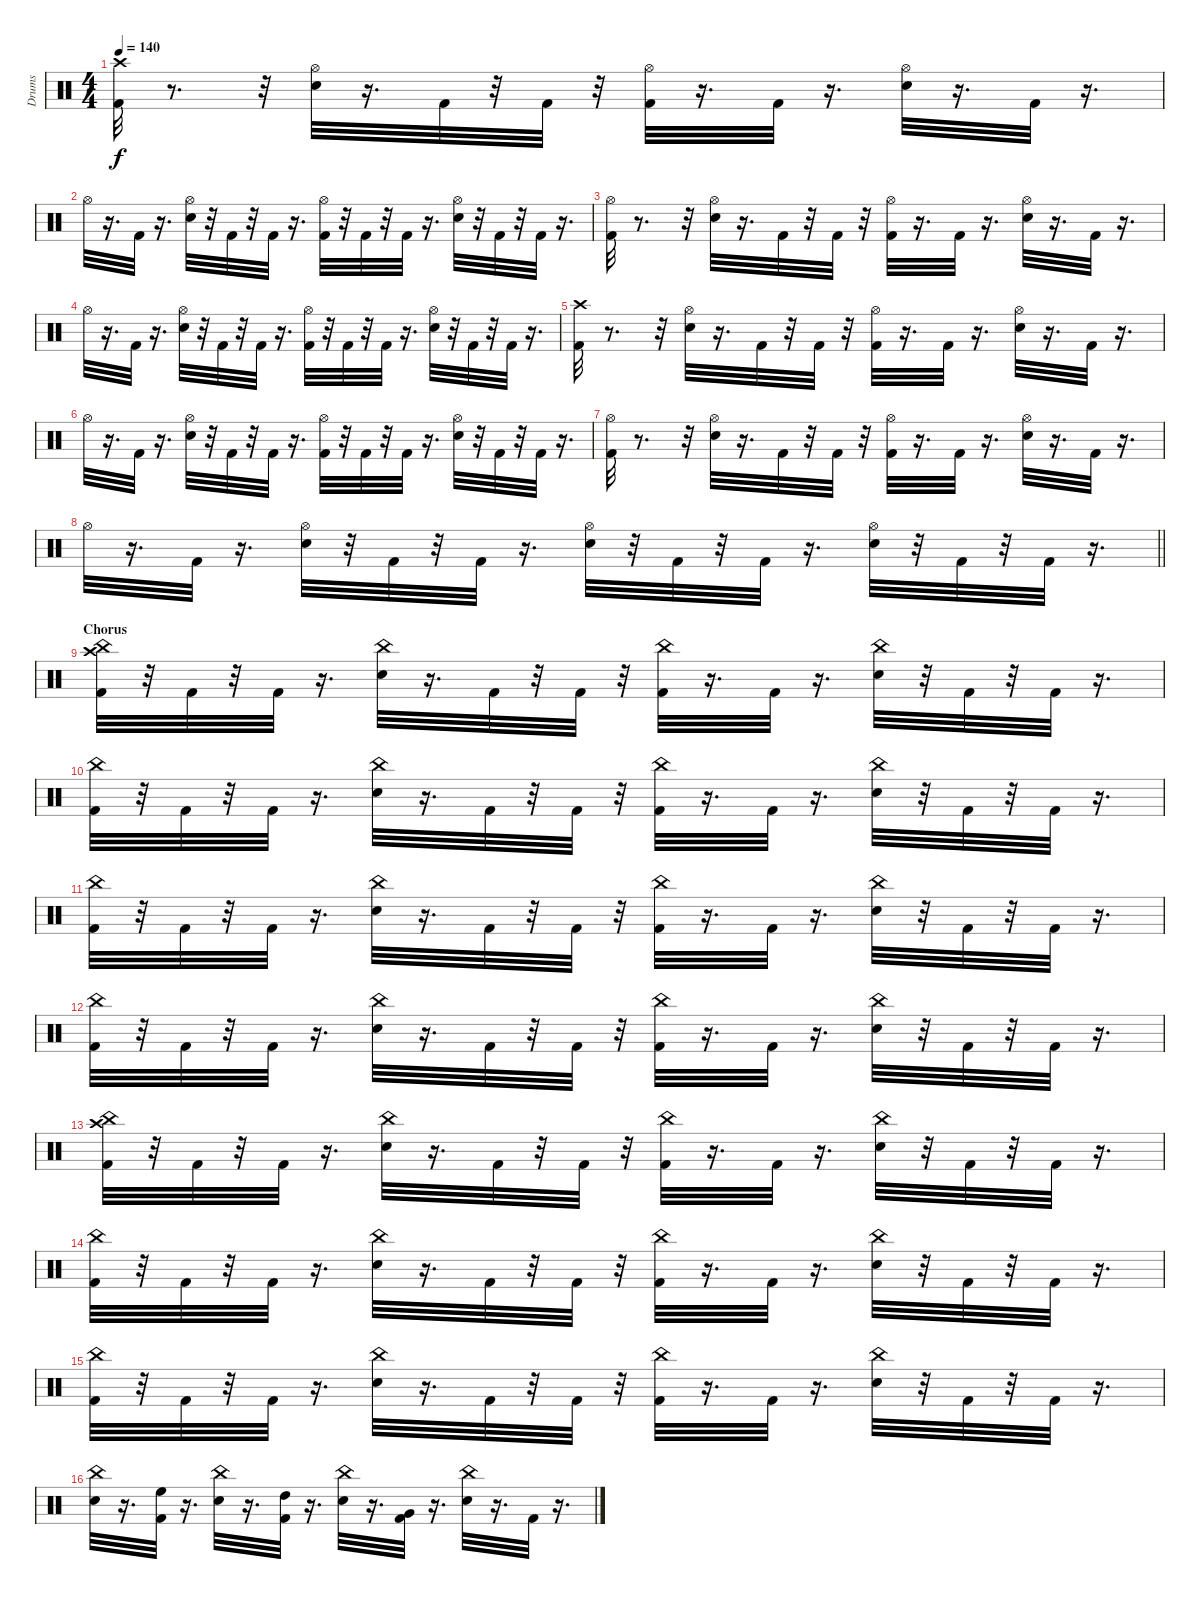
\track ("Drums" "Drums") {instrument percussion}
\staff {score}
\articulation defaults
\ts (4 4)
\tempo 140
\clef neutral
\ks c
("Kick (hit) 2" "Crash high (hit)").32{dy f} r.8{d} r.32 ("Snare (hit) 2" "Hi-Hat (open)").32 r.16{d} "Kick (hit) 2".32 r.32 "Kick (hit) 2".32 r.32 ("Kick (hit) 2" "Hi-Hat (open)").32 r.16{d} "Kick (hit) 2".32 r.16{d} ("Snare (hit) 2" "Hi-Hat (open)").32 r.16{d} "Kick (hit) 2".32 r.16{d} |
"Hi-Hat (open)".32 r.16{d} "Kick (hit) 2".32 r.16{d} ("Snare (hit) 2" "Hi-Hat (open)").32 r.32 "Kick (hit) 2".32 r.32 "Kick (hit) 2".32 r.16{d} ("Kick (hit) 2" "Hi-Hat (open)").32 r.32 "Kick (hit) 2".32 r.32 "Kick (hit) 2".32 r.16{d} ("Snare (hit) 2" "Hi-Hat (open)").32 r.32 "Kick (hit) 2".32 r.32 "Kick (hit) 2".32 r.16{d} |
("Kick (hit) 2" "Hi-Hat (open)").32 r.8{d} r.32 ("Snare (hit) 2" "Hi-Hat (open)").32 r.16{d} "Kick (hit) 2".32 r.32 "Kick (hit) 2".32 r.32 ("Kick (hit) 2" "Hi-Hat (open)").32 r.16{d} "Kick (hit) 2".32 r.16{d} ("Snare (hit) 2" "Hi-Hat (open)").32 r.16{d} "Kick (hit) 2".32 r.16{d} |
"Hi-Hat (open)".32 r.16{d} "Kick (hit) 2".32 r.16{d} ("Snare (hit) 2" "Hi-Hat (open)").32 r.32 "Kick (hit) 2".32 r.32 "Kick (hit) 2".32 r.16{d} ("Kick (hit) 2" "Hi-Hat (open)").32 r.32 "Kick (hit) 2".32 r.32 "Kick (hit) 2".32 r.16{d} ("Snare (hit) 2" "Hi-Hat (open)").32 r.32 "Kick (hit) 2".32 r.32 "Kick (hit) 2".32 r.16{d} |
("Kick (hit) 2" "Crash high (hit)").32 r.8{d} r.32 ("Snare (hit) 2" "Hi-Hat (open)").32 r.16{d} "Kick (hit) 2".32 r.32 "Kick (hit) 2".32 r.32 ("Kick (hit) 2" "Hi-Hat (open)").32 r.16{d} "Kick (hit) 2".32 r.16{d} ("Snare (hit) 2" "Hi-Hat (open)").32 r.16{d} "Kick (hit) 2".32 r.16{d} |
"Hi-Hat (open)".32 r.16{d} "Kick (hit) 2".32 r.16{d} ("Snare (hit) 2" "Hi-Hat (open)").32 r.32 "Kick (hit) 2".32 r.32 "Kick (hit) 2".32 r.16{d} ("Kick (hit) 2" "Hi-Hat (open)").32 r.32 "Kick (hit) 2".32 r.32 "Kick (hit) 2".32 r.16{d} ("Snare (hit) 2" "Hi-Hat (open)").32 r.32 "Kick (hit) 2".32 r.32 "Kick (hit) 2".32 r.16{d} |
("Kick (hit) 2" "Hi-Hat (open)").32 r.8{d} r.32 ("Snare (hit) 2" "Hi-Hat (open)").32 r.16{d} "Kick (hit) 2".32 r.32 "Kick (hit) 2".32 r.32 ("Kick (hit) 2" "Hi-Hat (open)").32 r.16{d} "Kick (hit) 2".32 r.16{d} ("Snare (hit) 2" "Hi-Hat (open)").32 r.16{d} "Kick (hit) 2".32 r.16{d} |
\barLineRight lightlight "Hi-Hat (open)".32
r.16{d} "Kick (hit) 2".32 r.16{d} ("Snare (hit) 2" "Hi-Hat (open)").32 r.32 "Kick (hit) 2".32 r.32 "Kick (hit) 2".32 r.16{d} ("Snare (hit) 2" "Hi-Hat (open)").32 r.32 "Kick (hit) 2".32 r.32 "Kick (hit) 2".32 r.16{d} ("Snare (hit) 2" "Hi-Hat (open)").32 r.32 "Kick (hit) 2".32 r.32 "Kick (hit) 2".32 r.16{d} |
\section ("" "Chorus")
("Kick (hit) 2" "Crash high (hit)" "China (hit)").32 r.32 "Kick (hit) 2".32 r.32 "Kick (hit) 2".32 r.16{d} ("Snare (hit) 2" "China (hit)").32 r.16{d} "Kick (hit) 2".32 r.32 "Kick (hit) 2".32 r.32 ("Kick (hit) 2" "China (hit)").32 r.16{d} "Kick (hit) 2".32 r.16{d} ("Snare (hit) 2" "China (hit)").32 r.32 "Kick (hit) 2".32 r.32 "Kick (hit) 2".32 r.16{d} |
("Kick (hit) 2" "China (hit)").32 r.32 "Kick (hit) 2".32 r.32 "Kick (hit) 2".32 r.16{d} ("Snare (hit) 2" "China (hit)").32 r.16{d} "Kick (hit) 2".32 r.32 "Kick (hit) 2".32 r.32 ("Kick (hit) 2" "China (hit)").32 r.16{d} "Kick (hit) 2".32 r.16{d} ("Snare (hit) 2" "China (hit)").32 r.32 "Kick (hit) 2".32 r.32 "Kick (hit) 2".32 r.16{d} |
("Kick (hit) 2" "China (hit)").32 r.32 "Kick (hit) 2".32 r.32 "Kick (hit) 2".32 r.16{d} ("Snare (hit) 2" "China (hit)").32 r.16{d} "Kick (hit) 2".32 r.32 "Kick (hit) 2".32 r.32 ("Kick (hit) 2" "China (hit)").32 r.16{d} "Kick (hit) 2".32 r.16{d} ("Snare (hit) 2" "China (hit)").32 r.32 "Kick (hit) 2".32 r.32 "Kick (hit) 2".32 r.16{d} |
("Kick (hit) 2" "China (hit)").32 r.32 "Kick (hit) 2".32 r.32 "Kick (hit) 2".32 r.16{d} ("Snare (hit) 2" "China (hit)").32 r.16{d} "Kick (hit) 2".32 r.32 "Kick (hit) 2".32 r.32 ("Kick (hit) 2" "China (hit)").32 r.16{d} "Kick (hit) 2".32 r.16{d} ("Snare (hit) 2" "China (hit)").32 r.32 "Kick (hit) 2".32 r.32 "Kick (hit) 2".32 r.16{d} |
("Kick (hit) 2" "Crash high (hit)" "China (hit)").32 r.32 "Kick (hit) 2".32 r.32 "Kick (hit) 2".32 r.16{d} ("Snare (hit) 2" "China (hit)").32 r.16{d} "Kick (hit) 2".32 r.32 "Kick (hit) 2".32 r.32 ("Kick (hit) 2" "China (hit)").32 r.16{d} "Kick (hit) 2".32 r.16{d} ("Snare (hit) 2" "China (hit)").32 r.32 "Kick (hit) 2".32 r.32 "Kick (hit) 2".32 r.16{d} |
("Kick (hit) 2" "China (hit)").32 r.32 "Kick (hit) 2".32 r.32 "Kick (hit) 2".32 r.16{d} ("Snare (hit) 2" "China (hit)").32 r.16{d} "Kick (hit) 2".32 r.32 "Kick (hit) 2".32 r.32 ("Kick (hit) 2" "China (hit)").32 r.16{d} "Kick (hit) 2".32 r.16{d} ("Snare (hit) 2" "China (hit)").32 r.32 "Kick (hit) 2".32 r.32 "Kick (hit) 2".32 r.16{d} |
("Kick (hit) 2" "China (hit)").32 r.32 "Kick (hit) 2".32 r.32 "Kick (hit) 2".32 r.16{d} ("Snare (hit) 2" "China (hit)").32 r.16{d} "Kick (hit) 2".32 r.32 "Kick (hit) 2".32 r.32 ("Kick (hit) 2" "China (hit)").32 r.16{d} "Kick (hit) 2".32 r.16{d} ("Snare (hit) 2" "China (hit)").32 r.32 "Kick (hit) 2".32 r.32 "Kick (hit) 2".32 r.16{d} |
("Snare (hit) 2" "China (hit)").32 r.16{d} ("Kick (hit) 2" "High Floor Tom (hit)").32 r.16{d} ("Snare (hit) 2" "China (hit)").32 r.16{d} ("Kick (hit) 2" "High Tom (hit)").32 r.16{d} ("Snare (hit) 2" "China (hit)").32 r.16{d} ("Kick (hit) 2" "Very Low Tom (hit)").32 r.16{d} ("Snare (hit) 2" "China (hit)").32 r.16{d} "Kick (hit) 2".32 r.16{d}
